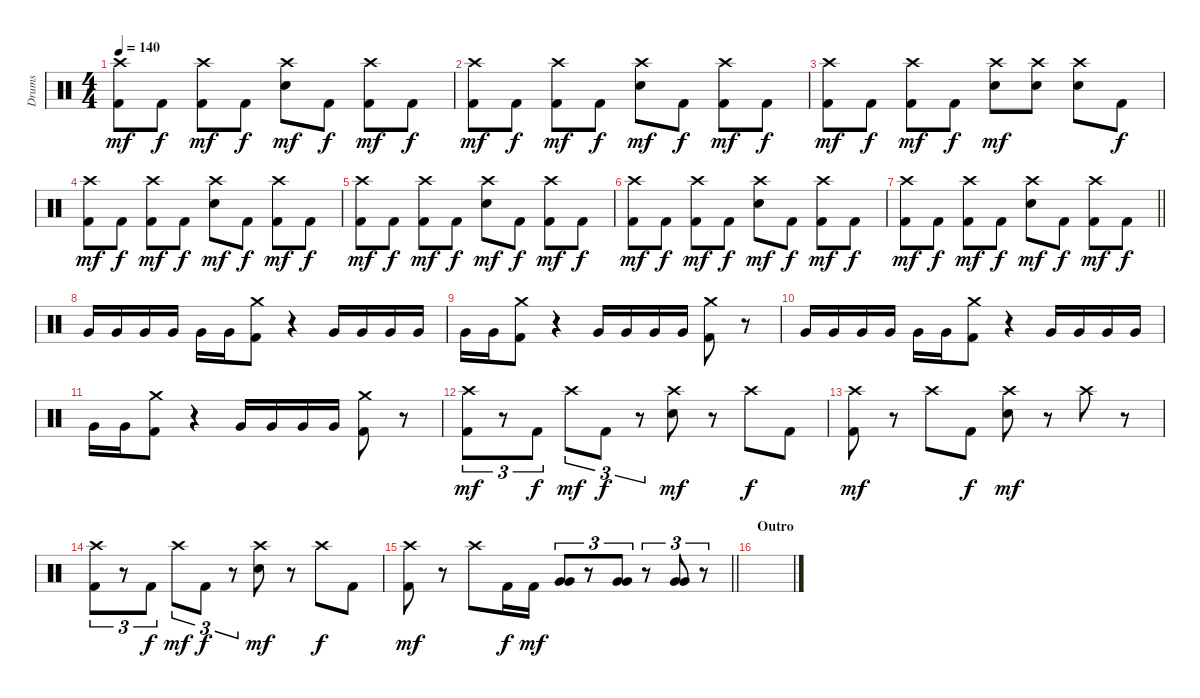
\track ("Drums" "Drums") {instrument percussion}
\staff {score}
\articulation defaults
\ts (4 4)
\tempo 140
\clef neutral
\ks c
("Crash high (hit)" "Kick (hit) 2").8{dy mf} "Kick (hit) 2".8{dy f} ("Crash high (hit)" "Kick (hit) 2").8{dy mf} "Kick (hit) 2".8{dy f} ("Crash high (hit)" "Snare (hit) 2").8{dy mf} "Kick (hit) 2".8{dy f} ("Crash high (hit)" "Kick (hit) 2").8{dy mf} "Kick (hit) 2".8{dy f} |
("Crash high (hit)" "Kick (hit) 2").8{dy mf} "Kick (hit) 2".8{dy f} ("Crash high (hit)" "Kick (hit) 2").8{dy mf} "Kick (hit) 2".8{dy f} ("Crash high (hit)" "Snare (hit) 2").8{dy mf} "Kick (hit) 2".8{dy f} ("Crash high (hit)" "Kick (hit) 2").8{dy mf} "Kick (hit) 2".8{dy f} |
("Crash high (hit)" "Kick (hit) 2").8{dy mf} "Kick (hit) 2".8{dy f} ("Crash high (hit)" "Kick (hit) 2").8{dy mf} "Kick (hit) 2".8{dy f} ("Crash high (hit)" "Snare (hit) 2").8{dy mf} ("Crash high (hit)" "Snare (hit) 2").8 ("Crash high (hit)" "Snare (hit) 2").8 "Kick (hit) 2".8{dy f} |
("Crash high (hit)" "Kick (hit) 2").8{dy mf} "Kick (hit) 2".8{dy f} ("Crash high (hit)" "Kick (hit) 2").8{dy mf} "Kick (hit) 2".8{dy f} ("Crash high (hit)" "Snare (hit) 2").8{dy mf} "Kick (hit) 2".8{dy f} ("Crash high (hit)" "Kick (hit) 2").8{dy mf} "Kick (hit) 2".8{dy f} |
("Crash high (hit)" "Kick (hit) 2").8{dy mf} "Kick (hit) 2".8{dy f} ("Crash high (hit)" "Kick (hit) 2").8{dy mf} "Kick (hit) 2".8{dy f} ("Crash high (hit)" "Snare (hit) 2").8{dy mf} "Kick (hit) 2".8{dy f} ("Crash high (hit)" "Kick (hit) 2").8{dy mf} "Kick (hit) 2".8{dy f} |
("Crash high (hit)" "Kick (hit) 2").8{dy mf} "Kick (hit) 2".8{dy f} ("Crash high (hit)" "Kick (hit) 2").8{dy mf} "Kick (hit) 2".8{dy f} ("Crash high (hit)" "Snare (hit) 2").8{dy mf} "Kick (hit) 2".8{dy f} ("Crash high (hit)" "Kick (hit) 2").8{dy mf} "Kick (hit) 2".8{dy f} |
\barLineRight lightlight
("Crash high (hit)" "Kick (hit) 2").8{dy mf} "Kick (hit) 2".8{dy f} ("Crash high (hit)" "Kick (hit) 2").8{dy mf} "Kick (hit) 2".8{dy f} ("Crash high (hit)" "Snare (hit) 2").8{dy mf} "Kick (hit) 2".8{dy f} ("Crash high (hit)" "Kick (hit) 2").8{dy mf} "Kick (hit) 2".8{dy f} |
"Very Low Tom (hit)".16 "Very Low Tom (hit)".16 "Very Low Tom (hit)".16 "Very Low Tom (hit)".16 "Very Low Tom (hit)".16 "Very Low Tom (hit)".16 ("Crash medium (hit)" "Kick (hit) 2").8 r.4 "Very Low Tom (hit)".16 "Very Low Tom (hit)".16 "Very Low Tom (hit)".16 "Very Low Tom (hit)".16 |
"Very Low Tom (hit)".16 "Very Low Tom (hit)".16 ("Crash medium (hit)" "Kick (hit) 2").8 r.4 "Very Low Tom (hit)".16 "Very Low Tom (hit)".16 "Very Low Tom (hit)".16 "Very Low Tom (hit)".16 ("Crash medium (hit)" "Kick (hit) 2").8 r.8 |
"Very Low Tom (hit)".16 "Very Low Tom (hit)".16 "Very Low Tom (hit)".16 "Very Low Tom (hit)".16 "Very Low Tom (hit)".16 "Very Low Tom (hit)".16 ("Crash medium (hit)" "Kick (hit) 2").8 r.4 "Very Low Tom (hit)".16 "Very Low Tom (hit)".16 "Very Low Tom (hit)".16 "Very Low Tom (hit)".16 |
"Very Low Tom (hit)".16 "Very Low Tom (hit)".16 ("Crash medium (hit)" "Kick (hit) 2").8 r.4 "Very Low Tom (hit)".16 "Very Low Tom (hit)".16 "Very Low Tom (hit)".16 "Very Low Tom (hit)".16 ("Crash medium (hit)" "Kick (hit) 2").8 r.8 |
("Crash high (hit)" "Kick (hit) 2").8{tu (3 2) dy mf} r.8{tu (3 2)} "Kick (hit) 2".8{tu (3 2) dy f} "Crash high (hit)".8{tu (3 2) dy mf} "Kick (hit) 2".8{tu (3 2) dy f} r.8{tu (3 2)} ("Crash high (hit)" "Snare (hit) 2").8{dy mf} r.8 "Crash high (hit)".8{dy f} "Kick (hit) 2".8 |
("Crash high (hit)" "Kick (hit) 2").8{dy mf} r.8 "Crash high (hit)".8 "Kick (hit) 2".8{dy f} ("Crash high (hit)" "Snare (hit) 2").8{dy mf} r.8 "Crash high (hit)".8 r.8 |
("Crash high (hit)" "Kick (hit) 2").8{tu (3 2)} r.8{tu (3 2)} "Kick (hit) 2".8{tu (3 2) dy f} "Crash high (hit)".8{tu (3 2) dy mf} "Kick (hit) 2".8{tu (3 2) dy f} r.8{tu (3 2)} ("Crash high (hit)" "Snare (hit) 2").8{dy mf} r.8 "Crash high (hit)".8{dy f} "Kick (hit) 2".8 |
\barLineRight lightlight
("Crash high (hit)" "Kick (hit) 2").8{dy mf} r.8 "Crash high (hit)".8 "Kick (hit) 2".16{dy f} "Kick (hit) 2".16{dy mf} ("Very Low Tom (hit)" "Very Low Tom (hit)").8{tu (3 2)} r.8{tu (3 2)} ("Very Low Tom (hit)" "Very Low Tom (hit)").8{tu (3 2)} r.8{tu (3 2)} ("Very Low Tom (hit)" "Very Low Tom (hit)").8{tu (3 2)} r.8{tu (3 2)} |
\section ("" "Outro")
